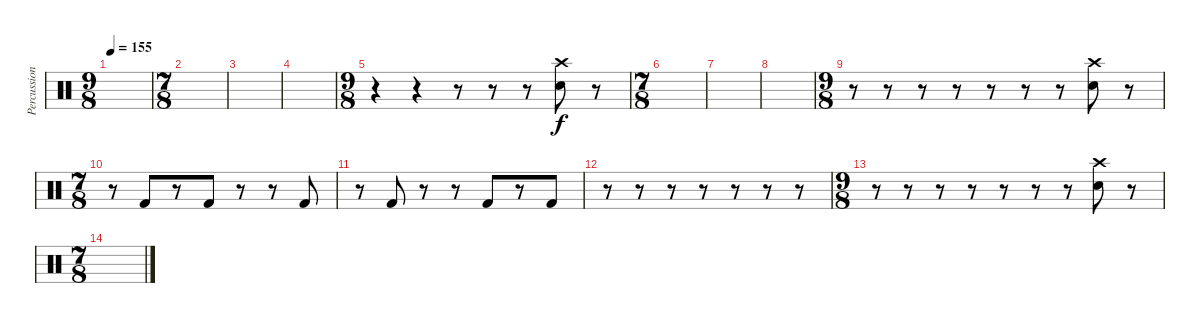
\track ("Percussion" "Percussion") {instrument percussion}
\staff {score}
\articulation defaults
\ts (9 8)
\tempo 155
\clef neutral
\ks c
|
\ts (7 8)
|
|
|
\ts (9 8)
r.4 r.4 r.8 r.8 r.8 ("Crash high (hit)" "Snare (hit) 2").8 r.8 |
\ts (7 8)
|
|
|
\ts (9 8)
r.8 r.8 r.8 r.8 r.8 r.8 r.8 ("Crash high (hit)" "Snare (hit) 2").8 r.8 |
\ts (7 8)
r.8 "Kick (hit) 2".8 r.8 "Kick (hit) 2".8 r.8 r.8 "Kick (hit) 2".8 |
r.8 "Kick (hit) 2".8 r.8 r.8 "Kick (hit) 2".8 r.8 "Kick (hit) 2".8 |
r.8 r.8 r.8 r.8 r.8 r.8 r.8 |
\ts (9 8)
r.8 r.8 r.8 r.8 r.8 r.8 r.8 ("Crash high (hit)" "Snare (hit) 2").8 r.8 |
\ts (7 8)
